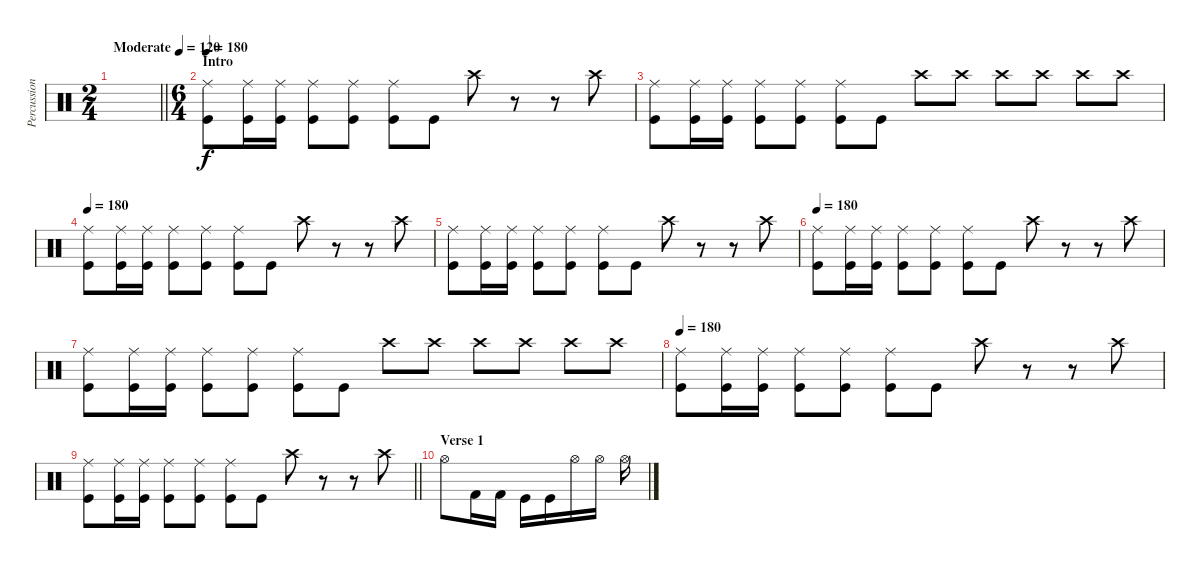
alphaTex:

\track ("Percussion" "Percussion") {instrument percussion}
\staff {score}
\articulation defaults
\ts (2 4)
\tempo (120 "Moderate")
\clef neutral
\barLineRight lightlight
\ks c
|
\ts (6 4)
\section ("" "Intro")
\tempo 180
("Ride (middle)" "Kick (hit)").8 ("Ride (middle)" "Kick (hit)").16 ("Ride (middle)" "Kick (hit)").16 ("Ride (middle)" "Kick (hit)").8 ("Ride (middle)" "Kick (hit)").8 ("Ride (middle)" "Kick (hit)").8 "Kick (hit)".8 "Crash high (hit)".8 r.8 r.8 "Crash high (hit)".8 |
("Ride (middle)" "Kick (hit)").8 ("Ride (middle)" "Kick (hit)").16 ("Ride (middle)" "Kick (hit)").16 ("Ride (middle)" "Kick (hit)").8 ("Ride (middle)" "Kick (hit)").8 ("Ride (middle)" "Kick (hit)").8 "Kick (hit)".8 "Crash high (hit)".8 "Crash high (hit)".8 "Crash high (hit)".8 "Crash high (hit)".8 "Crash high (hit)".8 "Crash high (hit)".8 |
\tempo 180
("Ride (middle)" "Kick (hit)").8 ("Ride (middle)" "Kick (hit)").16 ("Ride (middle)" "Kick (hit)").16 ("Ride (middle)" "Kick (hit)").8 ("Ride (middle)" "Kick (hit)").8 ("Ride (middle)" "Kick (hit)").8 "Kick (hit)".8 "Crash high (hit)".8 r.8 r.8 "Crash high (hit)".8 |
("Ride (middle)" "Kick (hit)").8 ("Ride (middle)" "Kick (hit)").16 ("Ride (middle)" "Kick (hit)").16 ("Ride (middle)" "Kick (hit)").8 ("Ride (middle)" "Kick (hit)").8 ("Ride (middle)" "Kick (hit)").8 "Kick (hit)".8 "Crash high (hit)".8 r.8 r.8 "Crash high (hit)".8 |
\tempo 180
("Ride (middle)" "Kick (hit)").8 ("Ride (middle)" "Kick (hit)").16 ("Ride (middle)" "Kick (hit)").16 ("Ride (middle)" "Kick (hit)").8 ("Ride (middle)" "Kick (hit)").8 ("Ride (middle)" "Kick (hit)").8 "Kick (hit)".8 "Crash high (hit)".8 r.8 r.8 "Crash high (hit)".8 |
("Ride (middle)" "Kick (hit)").8 ("Ride (middle)" "Kick (hit)").16 ("Ride (middle)" "Kick (hit)").16 ("Ride (middle)" "Kick (hit)").8 ("Ride (middle)" "Kick (hit)").8 ("Ride (middle)" "Kick (hit)").8 "Kick (hit)".8 "Crash high (hit)".8 "Crash high (hit)".8 "Crash high (hit)".8 "Crash high (hit)".8 "Crash high (hit)".8 "Crash high (hit)".8 |
\tempo 180
("Ride (middle)" "Kick (hit)").8 ("Ride (middle)" "Kick (hit)").16 ("Ride (middle)" "Kick (hit)").16 ("Ride (middle)" "Kick (hit)").8 ("Ride (middle)" "Kick (hit)").8 ("Ride (middle)" "Kick (hit)").8 "Kick (hit)".8 "Crash high (hit)".8 r.8 r.8 "Crash high (hit)".8 |
\barLineRight lightlight
("Ride (middle)" "Kick (hit)").8 ("Ride (middle)" "Kick (hit)").16 ("Ride (middle)" "Kick (hit)").16 ("Ride (middle)" "Kick (hit)").8 ("Ride (middle)" "Kick (hit)").8 ("Ride (middle)" "Kick (hit)").8 "Kick (hit)".8 "Crash high (hit)".8 r.8 r.8 "Crash high (hit)".8 |
\section ("" "Verse 1")
"Hi-Hat (open)".8 "Kick (hit) 2".16 "Kick (hit) 2".16 "Kick (hit)".16 "Kick (hit)".16 "Hi-Hat (open)".16 "Hi-Hat (open)".16 "Hi-Hat (open)".16
